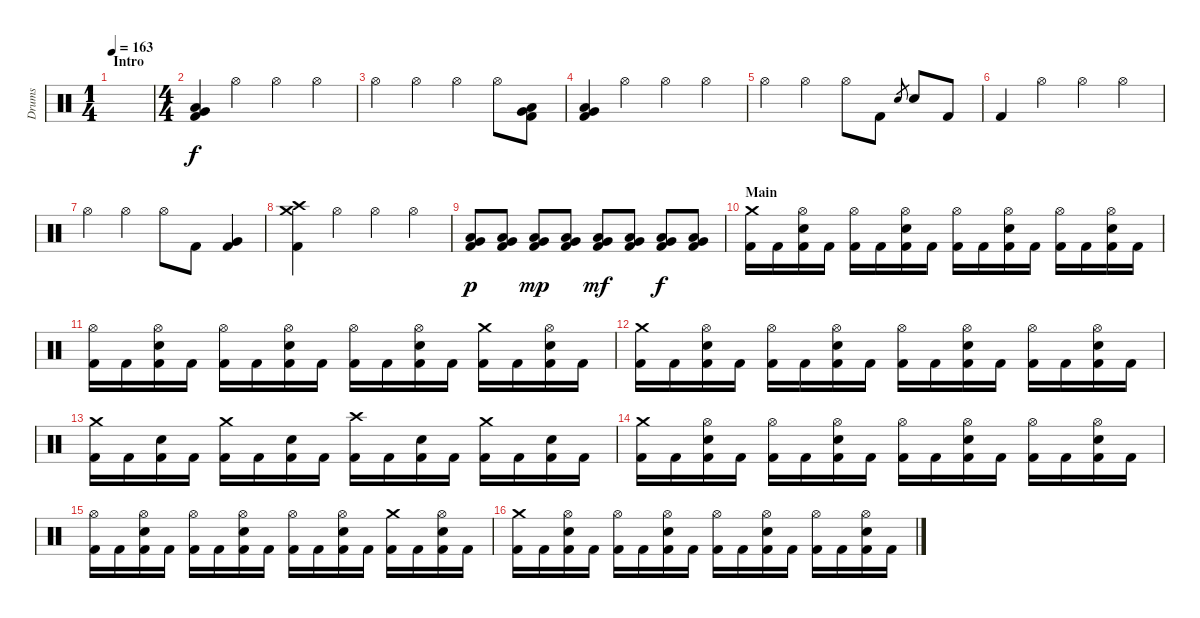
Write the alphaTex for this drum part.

\track ("Drums" "Drums") {instrument percussion}
\staff {score}
\articulation defaults
\ts (1 4)
\section ("" "Intro")
\tempo 163
\clef neutral
\ks c
|
\ts (4 4)
("Very Low Tom (hit)" "Low Floor Tom (hit)" "Kick (hit) 2").4 "Hi-Hat (open)".4 "Hi-Hat (open)".4 "Hi-Hat (open)".4 |
"Hi-Hat (open)".4 "Hi-Hat (open)".4 "Hi-Hat (open)".4 "Hi-Hat (open)".8 ("Very Low Tom (hit)" "Low Floor Tom (hit)" "Kick (hit) 2").8 |
("Very Low Tom (hit)" "Low Floor Tom (hit)" "Kick (hit) 2").4 "Hi-Hat (open)".4 "Hi-Hat (open)".4 "Hi-Hat (open)".4 |
"Hi-Hat (open)".4 "Hi-Hat (open)".4 "Hi-Hat (open)".8 "Kick (hit) 2".8 "Snare (hit) 2".8{gr} "Snare (hit) 2".8 "Kick (hit) 2".8 |
"Kick (hit) 2".4 "Hi-Hat (open)".4 "Hi-Hat (open)".4 "Hi-Hat (open)".4 |
"Hi-Hat (open)".4 "Hi-Hat (open)".4 "Hi-Hat (open)".8 "Kick (hit) 2".8 ("Very Low Tom (hit)" "Kick (hit) 2").4 |
("Crash medium (hit)" "Crash high (hit)" "Kick (hit) 2").4 "Hi-Hat (open)".4 "Hi-Hat (open)".4 "Hi-Hat (open)".4 |
("Very Low Tom (hit)" "Low Floor Tom (hit)" "Kick (hit) 2").8{dy p} ("Very Low Tom (hit)" "Low Floor Tom (hit)" "Kick (hit) 2").8 ("Very Low Tom (hit)" "Low Floor Tom (hit)" "Kick (hit) 2").8{dy mp} ("Very Low Tom (hit)" "Low Floor Tom (hit)" "Kick (hit) 2").8 ("Very Low Tom (hit)" "Low Floor Tom (hit)" "Kick (hit) 2").8{dy mf} ("Very Low Tom (hit)" "Low Floor Tom (hit)" "Kick (hit) 2").8 ("Very Low Tom (hit)" "Low Floor Tom (hit)" "Kick (hit) 2").8{dy f} ("Very Low Tom (hit)" "Low Floor Tom (hit)" "Kick (hit) 2").8 |
\section ("" "Main")
("Crash medium (hit)" "Kick (hit) 2").16 "Kick (hit) 2".16 ("Hi-Hat (open)" "Snare (hit) 2" "Kick (hit) 2").16 "Kick (hit) 2".16 ("Hi-Hat (open)" "Kick (hit) 2").16 "Kick (hit) 2".16 ("Hi-Hat (open)" "Snare (hit) 2" "Kick (hit) 2").16 "Kick (hit) 2".16 ("Hi-Hat (open)" "Kick (hit) 2").16 "Kick (hit) 2".16 ("Hi-Hat (open)" "Snare (hit) 2" "Kick (hit) 2").16 "Kick (hit) 2".16 ("Hi-Hat (open)" "Kick (hit) 2").16 "Kick (hit) 2".16 ("Hi-Hat (open)" "Snare (hit) 2" "Kick (hit) 2").16 "Kick (hit) 2".16 |
("Hi-Hat (open)" "Kick (hit) 2").16 "Kick (hit) 2".16 ("Hi-Hat (open)" "Snare (hit) 2" "Kick (hit) 2").16 "Kick (hit) 2".16 ("Hi-Hat (open)" "Kick (hit) 2").16 "Kick (hit) 2".16 ("Hi-Hat (open)" "Snare (hit) 2" "Kick (hit) 2").16 "Kick (hit) 2".16 ("Hi-Hat (open)" "Kick (hit) 2").16 "Kick (hit) 2".16 ("Hi-Hat (open)" "Snare (hit) 2" "Kick (hit) 2").16 "Kick (hit) 2".16 ("Crash medium (hit)" "Kick (hit) 2").16 "Kick (hit) 2".16 ("Hi-Hat (open)" "Snare (hit) 2" "Kick (hit) 2").16 "Kick (hit) 2".16 |
("Crash medium (hit)" "Kick (hit) 2").16 "Kick (hit) 2".16 ("Hi-Hat (open)" "Snare (hit) 2" "Kick (hit) 2").16 "Kick (hit) 2".16 ("Hi-Hat (open)" "Kick (hit) 2").16 "Kick (hit) 2".16 ("Hi-Hat (open)" "Snare (hit) 2" "Kick (hit) 2").16 "Kick (hit) 2".16 ("Hi-Hat (open)" "Kick (hit) 2").16 "Kick (hit) 2".16 ("Hi-Hat (open)" "Snare (hit) 2" "Kick (hit) 2").16 "Kick (hit) 2".16 ("Hi-Hat (open)" "Kick (hit) 2").16 "Kick (hit) 2".16 ("Hi-Hat (open)" "Snare (hit) 2" "Kick (hit) 2").16 "Kick (hit) 2".16 |
("Crash medium (hit)" "Kick (hit) 2").16 "Kick (hit) 2".16 ("Snare (hit) 2" "Kick (hit) 2").16 "Kick (hit) 2".16 ("Crash medium (hit)" "Kick (hit) 2").16 "Kick (hit) 2".16 ("Snare (hit) 2" "Kick (hit) 2").16 "Kick (hit) 2".16 ("Crash high (hit)" "Kick (hit) 2").16 "Kick (hit) 2".16 ("Snare (hit) 2" "Kick (hit) 2").16 "Kick (hit) 2".16 ("Crash medium (hit)" "Kick (hit) 2").16 "Kick (hit) 2".16 ("Snare (hit) 2" "Kick (hit) 2").16 "Kick (hit) 2".16 |
("Crash medium (hit)" "Kick (hit) 2").16 "Kick (hit) 2".16 ("Hi-Hat (open)" "Snare (hit) 2" "Kick (hit) 2").16 "Kick (hit) 2".16 ("Hi-Hat (open)" "Kick (hit) 2").16 "Kick (hit) 2".16 ("Hi-Hat (open)" "Snare (hit) 2" "Kick (hit) 2").16 "Kick (hit) 2".16 ("Hi-Hat (open)" "Kick (hit) 2").16 "Kick (hit) 2".16 ("Hi-Hat (open)" "Snare (hit) 2" "Kick (hit) 2").16 "Kick (hit) 2".16 ("Hi-Hat (open)" "Kick (hit) 2").16 "Kick (hit) 2".16 ("Hi-Hat (open)" "Snare (hit) 2" "Kick (hit) 2").16 "Kick (hit) 2".16 |
("Hi-Hat (open)" "Kick (hit) 2").16 "Kick (hit) 2".16 ("Hi-Hat (open)" "Snare (hit) 2" "Kick (hit) 2").16 "Kick (hit) 2".16 ("Hi-Hat (open)" "Kick (hit) 2").16 "Kick (hit) 2".16 ("Hi-Hat (open)" "Snare (hit) 2" "Kick (hit) 2").16 "Kick (hit) 2".16 ("Hi-Hat (open)" "Kick (hit) 2").16 "Kick (hit) 2".16 ("Hi-Hat (open)" "Snare (hit) 2" "Kick (hit) 2").16 "Kick (hit) 2".16 ("Crash medium (hit)" "Kick (hit) 2").16 "Kick (hit) 2".16 ("Hi-Hat (open)" "Snare (hit) 2" "Kick (hit) 2").16 "Kick (hit) 2".16 |
("Crash medium (hit)" "Kick (hit) 2").16 "Kick (hit) 2".16 ("Hi-Hat (open)" "Snare (hit) 2" "Kick (hit) 2").16 "Kick (hit) 2".16 ("Hi-Hat (open)" "Kick (hit) 2").16 "Kick (hit) 2".16 ("Hi-Hat (open)" "Snare (hit) 2" "Kick (hit) 2").16 "Kick (hit) 2".16 ("Hi-Hat (open)" "Kick (hit) 2").16 "Kick (hit) 2".16 ("Hi-Hat (open)" "Snare (hit) 2" "Kick (hit) 2").16 "Kick (hit) 2".16 ("Hi-Hat (open)" "Kick (hit) 2").16 "Kick (hit) 2".16 ("Hi-Hat (open)" "Snare (hit) 2" "Kick (hit) 2").16 "Kick (hit) 2".16
